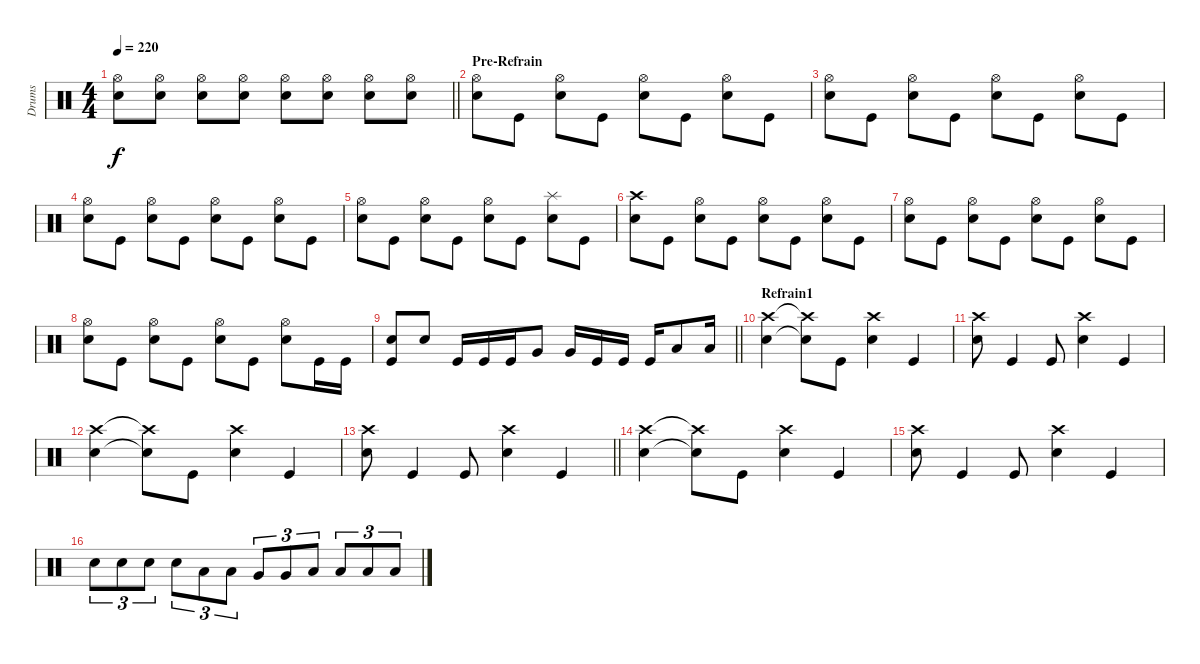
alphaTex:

\track ("Drums" "Drums") {instrument percussion}
\staff {score}
\articulation defaults
\ts (4 4)
\tempo 220
\clef neutral
\barLineRight lightlight
\ks c
("Hi-Hat (open)" "Snare (hit) 2").8{dy f} ("Hi-Hat (open)" "Snare (hit) 2").8 ("Hi-Hat (open)" "Snare (hit) 2").8 ("Hi-Hat (open)" "Snare (hit) 2").8 ("Hi-Hat (open)" "Snare (hit) 2").8 ("Hi-Hat (open)" "Snare (hit) 2").8 ("Hi-Hat (open)" "Snare (hit) 2").8 ("Hi-Hat (open)" "Snare (hit) 2").8 |
\section ("" "Pre-Refrain")
("Hi-Hat (open)" "Snare (hit) 2").8 "Kick (hit)".8 ("Hi-Hat (open)" "Snare (hit) 2").8 "Kick (hit)".8 ("Hi-Hat (open)" "Snare (hit) 2").8 "Kick (hit)".8 ("Hi-Hat (open)" "Snare (hit) 2").8 "Kick (hit)".8 |
("Hi-Hat (open)" "Snare (hit) 2").8 "Kick (hit)".8 ("Hi-Hat (open)" "Snare (hit) 2").8 "Kick (hit)".8 ("Hi-Hat (open)" "Snare (hit) 2").8 "Kick (hit)".8 ("Hi-Hat (open)" "Snare (hit) 2").8 "Kick (hit)".8 |
("Hi-Hat (open)" "Snare (hit) 2").8 "Kick (hit)".8 ("Hi-Hat (open)" "Snare (hit) 2").8 "Kick (hit)".8 ("Hi-Hat (open)" "Snare (hit) 2").8 "Kick (hit)".8 ("Hi-Hat (open)" "Snare (hit) 2").8 "Kick (hit)".8 |
("Hi-Hat (open)" "Snare (hit) 2").8 "Kick (hit)".8 ("Hi-Hat (open)" "Snare (hit) 2").8 "Kick (hit)".8 ("Hi-Hat (open)" "Snare (hit) 2").8 "Kick (hit)".8 ("Splash (hit)" "Snare (hit) 2").8 "Kick (hit)".8 |
("Crash high (hit)" "Snare (hit) 2").8 "Kick (hit)".8 ("Hi-Hat (open)" "Snare (hit) 2").8 "Kick (hit)".8 ("Hi-Hat (open)" "Snare (hit) 2").8 "Kick (hit)".8 ("Hi-Hat (open)" "Snare (hit) 2").8 "Kick (hit)".8 |
("Hi-Hat (open)" "Snare (hit) 2").8 "Kick (hit)".8 ("Hi-Hat (open)" "Snare (hit) 2").8 "Kick (hit)".8 ("Hi-Hat (open)" "Snare (hit) 2").8 "Kick (hit)".8 ("Hi-Hat (open)" "Snare (hit) 2").8 "Kick (hit)".8 |
("Hi-Hat (open)" "Snare (hit) 2").8 "Kick (hit)".8 ("Hi-Hat (open)" "Snare (hit) 2").8 "Kick (hit)".8 ("Hi-Hat (open)" "Snare (hit) 2").8 "Kick (hit)".8 ("Hi-Hat (open)" "Snare (hit) 2").8 "Kick (hit)".16 "Kick (hit)".16 |
\barLineRight lightlight
("Snare (hit) 2" "Kick (hit)").8 "Snare (hit) 2".8 "Kick (hit)".16 "Kick (hit)".16 "Kick (hit)".16 "Very Low Tom (hit)".8 "Very Low Tom (hit)".16 "Kick (hit)".16 "Kick (hit)".16 "Kick (hit)".16 "Low Floor Tom (hit)".8 "Low Floor Tom (hit)".16 |
\section ("" "Refrain1")
("Crash high (hit)" "Snare (hit) 2").4 ("Crash high (hit)"{t} "Snare (hit) 2"{t}).8 "Kick (hit)".8 ("Crash high (hit)" "Snare (hit) 2").4 "Kick (hit)".4 |
("Crash high (hit)" "Snare (hit) 2").8 "Kick (hit)".4 "Kick (hit)".8 ("Crash high (hit)" "Snare (hit) 2").4 "Kick (hit)".4 |
("Crash high (hit)" "Snare (hit) 2").4 ("Crash high (hit)"{t} "Snare (hit) 2"{t}).8 "Kick (hit)".8 ("Crash high (hit)" "Snare (hit) 2").4 "Kick (hit)".4 |
\barLineRight lightlight
("Crash high (hit)" "Snare (hit) 2").8 "Kick (hit)".4 "Kick (hit)".8 ("Crash high (hit)" "Snare (hit) 2").4 "Kick (hit)".4 |
("Crash high (hit)" "Snare (hit) 2").4 ("Crash high (hit)"{t} "Snare (hit) 2"{t}).8 "Kick (hit)".8 ("Crash high (hit)" "Snare (hit) 2").4 "Kick (hit)".4 |
("Crash high (hit)" "Snare (hit) 2").8 "Kick (hit)".4 "Kick (hit)".8 ("Crash high (hit)" "Snare (hit) 2").4 "Kick (hit)".4 |
"Snare (hit) 2".8{tu (3 2)} "Snare (hit) 2".8{tu (3 2)} "Snare (hit) 2".8{tu (3 2)} "Snare (hit) 2".8{tu (3 2)} "Low Floor Tom (hit)".8{tu (3 2)} "Low Floor Tom (hit)".8{tu (3 2)} "Very Low Tom (hit)".8{tu (3 2)} "Very Low Tom (hit)".8{tu (3 2)} "Low Floor Tom (hit)".8{tu (3 2)} "Low Floor Tom (hit)".8{tu (3 2)} "Low Floor Tom (hit)".8{tu (3 2)} "Low Floor Tom (hit)".8{tu (3 2)}
